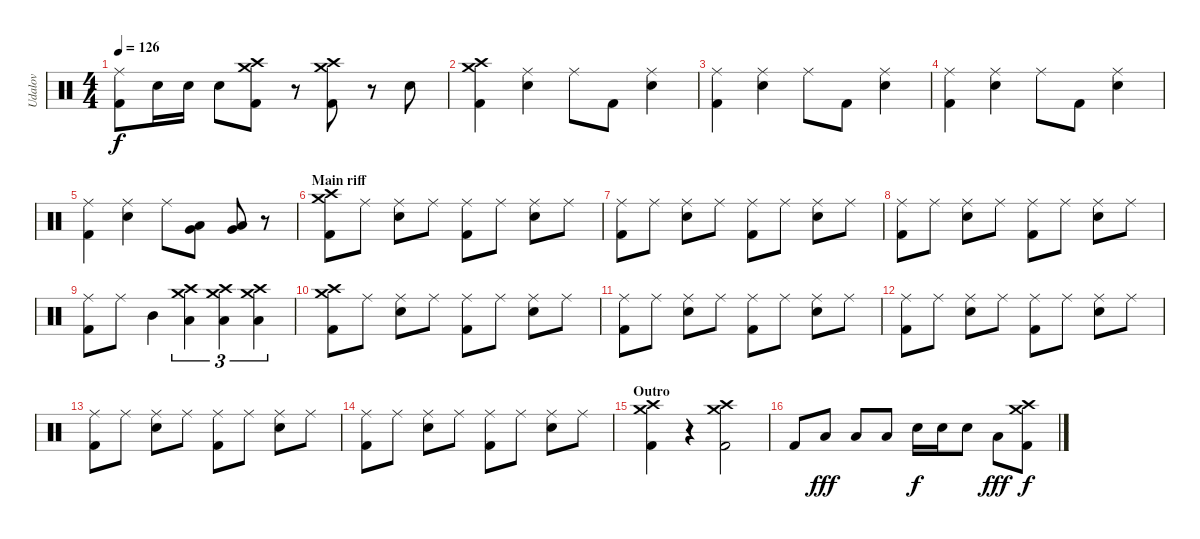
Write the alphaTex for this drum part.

\track ("Udalov" "Udalov") {instrument percussion}
\staff {score}
\articulation defaults
\ts (4 4)
\tempo 126
\clef neutral
\ks c
("Kick (hit) 2" "Ride (middle)").8{dy f} "Snare (hit) 2".16 "Snare (hit) 2".16 "Snare (hit) 2".8 ("Kick (hit) 2" "Crash high (hit)" "Crash medium (hit)").8 r.8 ("Kick (hit) 2" "Crash medium (hit)" "Crash high (hit)").8 r.8 "Snare (hit) 2".8 |
("Kick (hit) 2" "Crash high (hit)" "Crash medium (hit)").4 ("Snare (hit) 2" "Ride (middle)").4 "Ride (middle)".8 "Kick (hit) 2".8 ("Snare (hit) 2" "Ride (middle)").4 |
("Kick (hit) 2" "Ride (middle)").4 ("Snare (hit) 2" "Ride (middle)").4 "Ride (middle)".8 "Kick (hit) 2".8 ("Snare (hit) 2" "Ride (middle)").4 |
("Kick (hit) 2" "Ride (middle)").4 ("Snare (hit) 2" "Ride (middle)").4 "Ride (middle)".8 "Kick (hit) 2".8 ("Snare (hit) 2" "Ride (middle)").4 |
("Kick (hit) 2" "Ride (middle)").4 ("Snare (hit) 2" "Ride (middle)").4 "Ride (middle)".8 ("Low Tom (hit)" "Very Low Tom (hit)").8 ("Low Tom (hit)" "Very Low Tom (hit)").8 r.8 |
\section ("" "Main riff")
("Kick (hit) 2" "Crash high (hit)" "Crash medium (hit)").8 "Ride (middle)".8 ("Snare (hit) 2" "Ride (middle)").8 "Ride (middle)".8 ("Kick (hit) 2" "Ride (middle)").8 "Ride (middle)".8 ("Snare (hit) 2" "Ride (middle)").8 "Ride (middle)".8 |
("Kick (hit) 2" "Ride (middle)").8 "Ride (middle)".8 ("Snare (hit) 2" "Ride (middle)").8 "Ride (middle)".8 ("Kick (hit) 2" "Ride (middle)").8 "Ride (middle)".8 ("Snare (hit) 2" "Ride (middle)").8 "Ride (middle)".8 |
("Kick (hit) 2" "Ride (middle)").8 "Ride (middle)".8 ("Snare (hit) 2" "Ride (middle)").8 "Ride (middle)".8 ("Kick (hit) 2" "Ride (middle)").8 "Ride (middle)".8 ("Snare (hit) 2" "Ride (middle)").8 "Ride (middle)".8 |
("Kick (hit) 2" "Ride (middle)").8 "Ride (middle)".8 "Mid Tom (hit)".4 ("Crash high (hit)" "Crash medium (hit)" "Low Tom (hit)").4{tu (3 2)} ("Crash high (hit)" "Crash medium (hit)" "Low Tom (hit)").4{tu (3 2)} ("Crash high (hit)" "Crash medium (hit)" "Low Tom (hit)").4{tu (3 2)} |
("Kick (hit) 2" "Crash high (hit)" "Crash medium (hit)").8 "Ride (middle)".8 ("Snare (hit) 2" "Ride (middle)").8 "Ride (middle)".8 ("Kick (hit) 2" "Ride (middle)").8 "Ride (middle)".8 ("Snare (hit) 2" "Ride (middle)").8 "Ride (middle)".8 |
("Kick (hit) 2" "Ride (middle)").8 "Ride (middle)".8 ("Snare (hit) 2" "Ride (middle)").8 "Ride (middle)".8 ("Kick (hit) 2" "Ride (middle)").8 "Ride (middle)".8 ("Snare (hit) 2" "Ride (middle)").8 "Ride (middle)".8 |
("Kick (hit) 2" "Ride (middle)").8 "Ride (middle)".8 ("Snare (hit) 2" "Ride (middle)").8 "Ride (middle)".8 ("Kick (hit) 2" "Ride (middle)").8 "Ride (middle)".8 ("Snare (hit) 2" "Ride (middle)").8 "Ride (middle)".8 |
("Kick (hit) 2" "Ride (middle)").8 "Ride (middle)".8 ("Snare (hit) 2" "Ride (middle)").8 "Ride (middle)".8 ("Kick (hit) 2" "Ride (middle)").8 "Ride (middle)".8 ("Snare (hit) 2" "Ride (middle)").8 "Ride (middle)".8 |
("Kick (hit) 2" "Ride (middle)").8 "Ride (middle)".8 ("Snare (hit) 2" "Ride (middle)").8 "Ride (middle)".8 ("Kick (hit) 2" "Ride (middle)").8 "Ride (middle)".8 ("Snare (hit) 2" "Ride (middle)").8 "Ride (middle)".8 |
\section ("" "Outro")
("Kick (hit) 2" "Crash high (hit)" "Crash medium (hit)").4 r.4 ("Kick (hit) 2" "Crash high (hit)" "Crash medium (hit)").2 |
"Kick (hit) 2".8 "Low Tom (hit)".8{dy fff} "Low Tom (hit)".8 "Low Tom (hit)".8 "Snare (hit) 2".16{dy f} "Snare (hit) 2".16 "Snare (hit) 2".8 "Low Tom (hit)".8{dy fff} ("Kick (hit) 2" "Crash high (hit)" "Crash medium (hit)").8{dy f}
